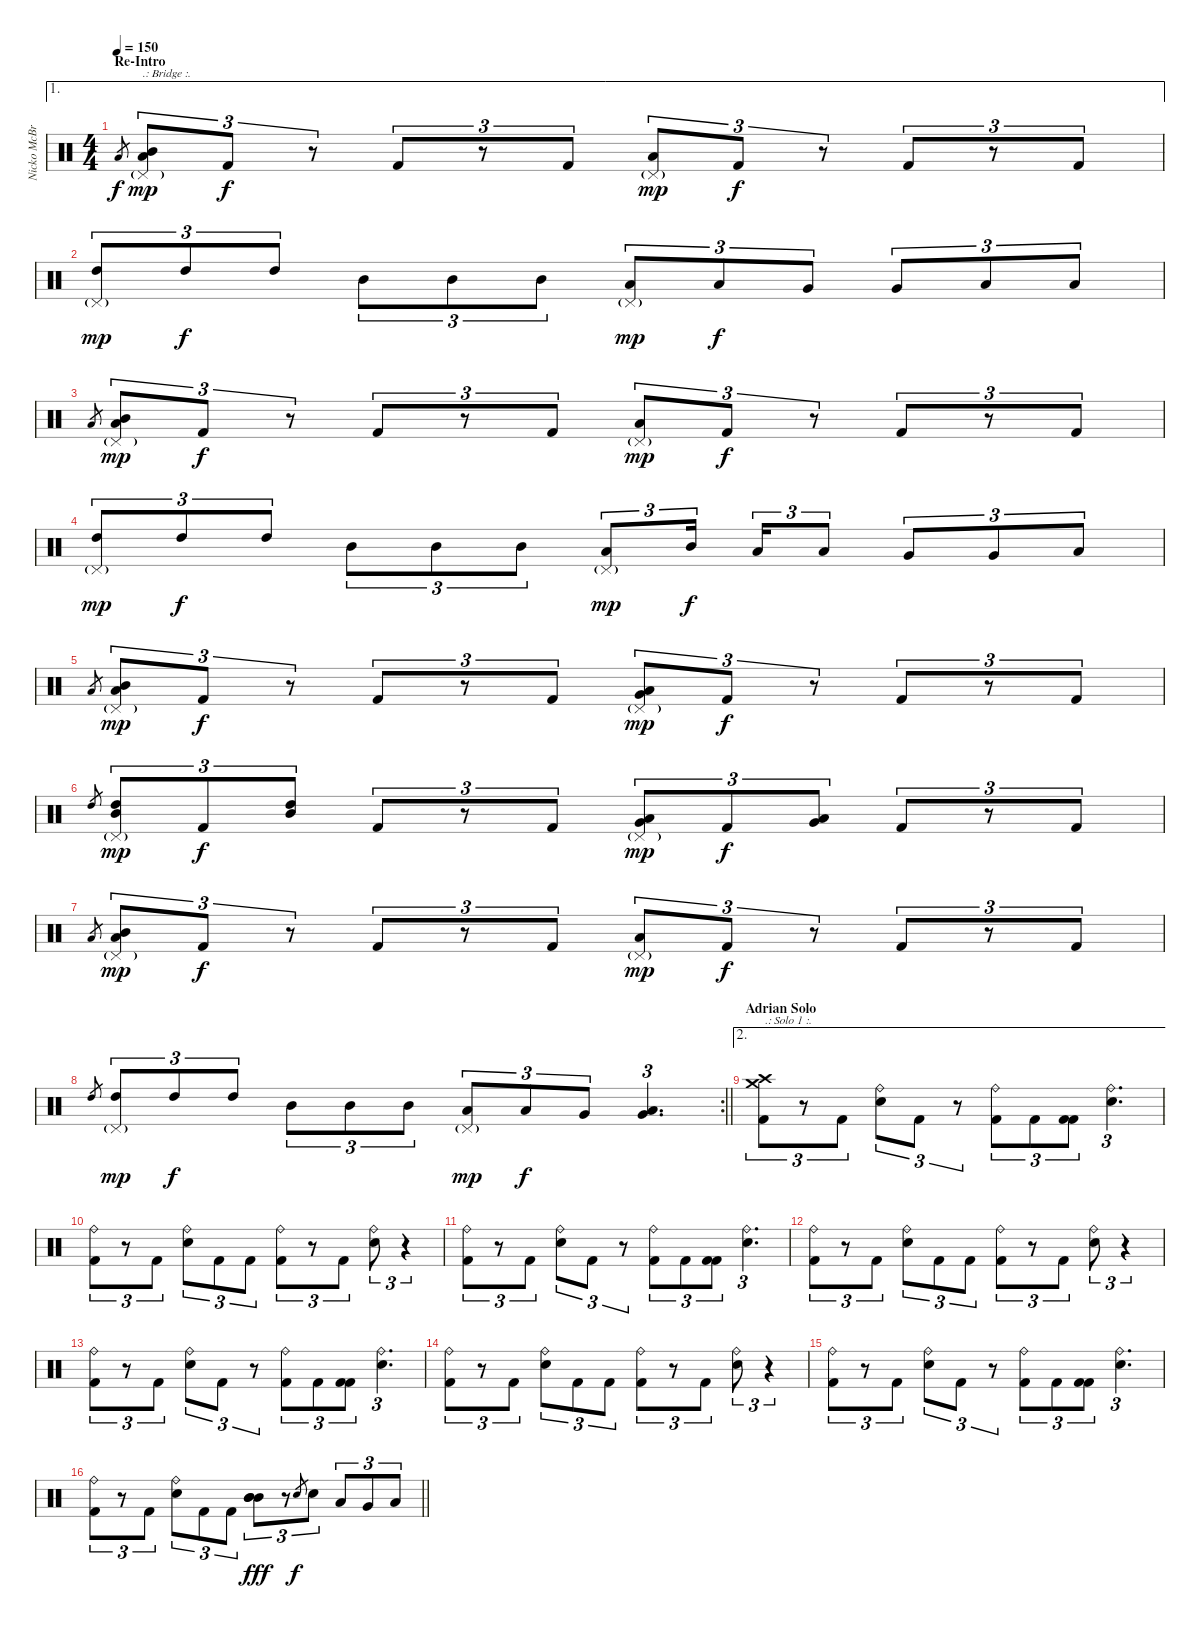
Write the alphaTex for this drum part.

\track ("Nicko McBrain" "Nicko McBr") {instrument percussion}
\staff {score}
\articulation defaults
\ae 1
\ts (4 4)
\section ("" "Re-Intro")
\tempo 150
\clef neutral
\ks c "Low Tom (hit)".8{gr dy f}
("Mid Tom (hit)" "Low Tom (hit)" "Pedal Hi-Hat (hit)"{g}).8{tu (3 2) txt ".: Bridge :." dy mp} "Kick (hit) 2".8{tu (3 2) dy f} r.8{tu (3 2)} "Kick (hit) 2".8{tu (3 2)} r.8{tu (3 2)} "Kick (hit) 2".8{tu (3 2)} ("Low Tom (hit)" "Pedal Hi-Hat (hit)"{g}).8{tu (3 2) dy mp} "Kick (hit) 2".8{tu (3 2) dy f} r.8{tu (3 2)} "Kick (hit) 2".8{tu (3 2)} r.8{tu (3 2)} "Kick (hit) 2".8{tu (3 2)} |
("High Tom (hit)" "Pedal Hi-Hat (hit)"{g}).8{tu (3 2) dy mp} "High Tom (hit)".8{tu (3 2) dy f} "High Tom (hit)".8{tu (3 2)} "Mid Tom (hit)".8{tu (3 2)} "Mid Tom (hit)".8{tu (3 2)} "Mid Tom (hit)".8{tu (3 2)} ("Low Tom (hit)" "Pedal Hi-Hat (hit)"{g}).8{tu (3 2) dy mp} "Low Tom (hit)".8{tu (3 2) dy f} "Very Low Tom (hit)".8{tu (3 2)} "Very Low Tom (hit)".8{tu (3 2)} "Low Floor Tom (hit)".8{tu (3 2)} "Low Floor Tom (hit)".8{tu (3 2)} |
"Low Tom (hit)".8{gr} ("Mid Tom (hit)" "Low Tom (hit)" "Pedal Hi-Hat (hit)"{g}).8{tu (3 2) dy mp} "Kick (hit) 2".8{tu (3 2) dy f} r.8{tu (3 2)} "Kick (hit) 2".8{tu (3 2)} r.8{tu (3 2)} "Kick (hit) 2".8{tu (3 2)} ("Low Tom (hit)" "Pedal Hi-Hat (hit)"{g}).8{tu (3 2) dy mp} "Kick (hit) 2".8{tu (3 2) dy f} r.8{tu (3 2)} "Kick (hit) 2".8{tu (3 2)} r.8{tu (3 2)} "Kick (hit) 2".8{tu (3 2)} |
("High Tom (hit)" "Pedal Hi-Hat (hit)"{g}).8{tu (3 2) dy mp} "High Tom (hit)".8{tu (3 2) dy f} "High Tom (hit)".8{tu (3 2)} "Mid Tom (hit)".8{tu (3 2)} "Mid Tom (hit)".8{tu (3 2)} "Mid Tom (hit)".8{tu (3 2)} ("Low Tom (hit)" "Pedal Hi-Hat (hit)"{g}).8{tu (3 2) dy mp} "Mid Tom (hit)".16{tu (3 2) dy f beam splitsecondary} "Low Tom (hit)".16{tu (3 2)} "Low Tom (hit)".8{tu (3 2)} "Very Low Tom (hit)".8{tu (3 2)} "Very Low Tom (hit)".8{tu (3 2)} "Low Floor Tom (hit)".8{tu (3 2)} |
"Low Tom (hit)".8{gr} ("Mid Tom (hit)" "Low Tom (hit)" "Pedal Hi-Hat (hit)"{g}).8{tu (3 2) dy mp} "Kick (hit) 2".8{tu (3 2) dy f} r.8{tu (3 2)} "Kick (hit) 2".8{tu (3 2)} r.8{tu (3 2)} "Kick (hit) 2".8{tu (3 2)} ("Low Tom (hit)" "Very Low Tom (hit)" "Pedal Hi-Hat (hit)"{g}).8{tu (3 2) dy mp} "Kick (hit) 2".8{tu (3 2) dy f} r.8{tu (3 2)} "Kick (hit) 2".8{tu (3 2)} r.8{tu (3 2)} "Kick (hit) 2".8{tu (3 2)} |
"High Tom (hit)".8{gr} ("High Tom (hit)" "Mid Tom (hit)" "Pedal Hi-Hat (hit)"{g}).8{tu (3 2) dy mp} "Kick (hit) 2".8{tu (3 2) dy f} ("High Tom (hit)" "Mid Tom (hit)").8{tu (3 2)} "Kick (hit) 2".8{tu (3 2)} r.8{tu (3 2)} "Kick (hit) 2".8{tu (3 2)} ("Low Tom (hit)" "Very Low Tom (hit)" "Pedal Hi-Hat (hit)"{g}).8{tu (3 2) dy mp} "Kick (hit) 2".8{tu (3 2) dy f} ("Very Low Tom (hit)" "Low Floor Tom (hit)").8{tu (3 2)} "Kick (hit) 2".8{tu (3 2)} r.8{tu (3 2)} "Kick (hit) 2".8{tu (3 2)} |
"Low Tom (hit)".8{gr} ("Mid Tom (hit)" "Low Tom (hit)" "Pedal Hi-Hat (hit)"{g}).8{tu (3 2) dy mp} "Kick (hit) 2".8{tu (3 2) dy f} r.8{tu (3 2)} "Kick (hit) 2".8{tu (3 2)} r.8{tu (3 2)} "Kick (hit) 2".8{tu (3 2)} ("Low Tom (hit)" "Pedal Hi-Hat (hit)"{g}).8{tu (3 2) dy mp} "Kick (hit) 2".8{tu (3 2) dy f} r.8{tu (3 2)} "Kick (hit) 2".8{tu (3 2)} r.8{tu (3 2)} "Kick (hit) 2".8{tu (3 2)} |
\rc 2
\barLineRight lightlight "High Tom (hit)".8{gr}
("High Tom (hit)" "Pedal Hi-Hat (hit)"{g}).8{tu (3 2) dy mp} "High Tom (hit)".8{tu (3 2) dy f} "High Tom (hit)".8{tu (3 2)} "Mid Tom (hit)".8{tu (3 2)} "Mid Tom (hit)".8{tu (3 2)} "Mid Tom (hit)".8{tu (3 2)} ("Low Tom (hit)" "Pedal Hi-Hat (hit)"{g}).8{tu (3 2) dy mp} "Low Tom (hit)".8{tu (3 2) dy f} "Very Low Tom (hit)".8{tu (3 2)} ("Very Low Tom (hit)" "Low Floor Tom (hit)").4{d tu (3 2)} |
\ae 2
\section ("" "Adrian Solo")
("Crash medium (hit)" "Crash high (hit)" "Kick (hit) 2").8{tu (3 2) txt ".: Solo 1 :."} r.8{tu (3 2)} "Kick (hit) 2".8{tu (3 2)} ("Ride (bell)" "Electric Snare (hit)").8{tu (3 2)} "Kick (hit) 2".8{tu (3 2)} r.8{tu (3 2)} ("Ride (bell)" "Kick (hit) 2").8{tu (3 2)} "Kick (hit) 2".8{tu (3 2)} ("Kick (hit) 2" "Kick (hit) 2").8{tu (3 2)} ("Ride (bell)" "Electric Snare (hit)").4{d tu (3 2)} |
("Ride (bell)" "Kick (hit) 2").8{tu (3 2)} r.8{tu (3 2)} "Kick (hit) 2".8{tu (3 2)} ("Ride (bell)" "Electric Snare (hit)").8{tu (3 2)} "Kick (hit) 2".8{tu (3 2)} "Kick (hit) 2".8{tu (3 2)} ("Kick (hit) 2" "Ride (bell)").8{tu (3 2)} r.8{tu (3 2)} "Kick (hit) 2".8{tu (3 2)} ("Ride (bell)" "Electric Snare (hit)").8{tu (3 2)} r.4{tu (3 2)} |
("Ride (bell)" "Kick (hit) 2").8{tu (3 2)} r.8{tu (3 2)} "Kick (hit) 2".8{tu (3 2)} ("Ride (bell)" "Electric Snare (hit)").8{tu (3 2)} "Kick (hit) 2".8{tu (3 2)} r.8{tu (3 2)} ("Ride (bell)" "Kick (hit) 2").8{tu (3 2)} "Kick (hit) 2".8{tu (3 2)} ("Kick (hit) 2" "Kick (hit) 2").8{tu (3 2)} ("Ride (bell)" "Electric Snare (hit)").4{d tu (3 2)} |
("Ride (bell)" "Kick (hit) 2").8{tu (3 2)} r.8{tu (3 2)} "Kick (hit) 2".8{tu (3 2)} ("Ride (bell)" "Electric Snare (hit)").8{tu (3 2)} "Kick (hit) 2".8{tu (3 2)} "Kick (hit) 2".8{tu (3 2)} ("Kick (hit) 2" "Ride (bell)").8{tu (3 2)} r.8{tu (3 2)} "Kick (hit) 2".8{tu (3 2)} ("Ride (bell)" "Electric Snare (hit)").8{tu (3 2)} r.4{tu (3 2)} |
("Ride (bell)" "Kick (hit) 2").8{tu (3 2)} r.8{tu (3 2)} "Kick (hit) 2".8{tu (3 2)} ("Ride (bell)" "Electric Snare (hit)").8{tu (3 2)} "Kick (hit) 2".8{tu (3 2)} r.8{tu (3 2)} ("Ride (bell)" "Kick (hit) 2").8{tu (3 2)} "Kick (hit) 2".8{tu (3 2)} ("Kick (hit) 2" "Kick (hit) 2").8{tu (3 2)} ("Ride (bell)" "Electric Snare (hit)").4{d tu (3 2)} |
("Ride (bell)" "Kick (hit) 2").8{tu (3 2)} r.8{tu (3 2)} "Kick (hit) 2".8{tu (3 2)} ("Ride (bell)" "Electric Snare (hit)").8{tu (3 2)} "Kick (hit) 2".8{tu (3 2)} "Kick (hit) 2".8{tu (3 2)} ("Kick (hit) 2" "Ride (bell)").8{tu (3 2)} r.8{tu (3 2)} "Kick (hit) 2".8{tu (3 2)} ("Ride (bell)" "Electric Snare (hit)").8{tu (3 2)} r.4{tu (3 2)} |
("Ride (bell)" "Kick (hit) 2").8{tu (3 2)} r.8{tu (3 2)} "Kick (hit) 2".8{tu (3 2)} ("Ride (bell)" "Electric Snare (hit)").8{tu (3 2)} "Kick (hit) 2".8{tu (3 2)} r.8{tu (3 2)} ("Ride (bell)" "Kick (hit) 2").8{tu (3 2)} "Kick (hit) 2".8{tu (3 2)} ("Kick (hit) 2" "Kick (hit) 2").8{tu (3 2)} ("Ride (bell)" "Electric Snare (hit)").4{d tu (3 2)} |
\barLineRight lightlight
("Ride (bell)" "Kick (hit) 2").8{tu (3 2)} r.8{tu (3 2)} "Kick (hit) 2".8{tu (3 2)} ("Ride (bell)" "Electric Snare (hit)").8{tu (3 2)} "Kick (hit) 2".8{tu (3 2)} "Kick (hit) 2".8{tu (3 2)} ("Mid Tom (hit)" "Mid Tom (hit)" "Mid Tom (hit)").8{tu (3 2) dy fff} r.8{tu (3 2)} "Electric Snare (hit)".8{gr dy f} "Electric Snare (hit)".8{tu (3 2)} "Low Tom (hit)".8{tu (3 2)} "Very Low Tom (hit)".8{tu (3 2)} "Low Floor Tom (hit)".8{tu (3 2)}
